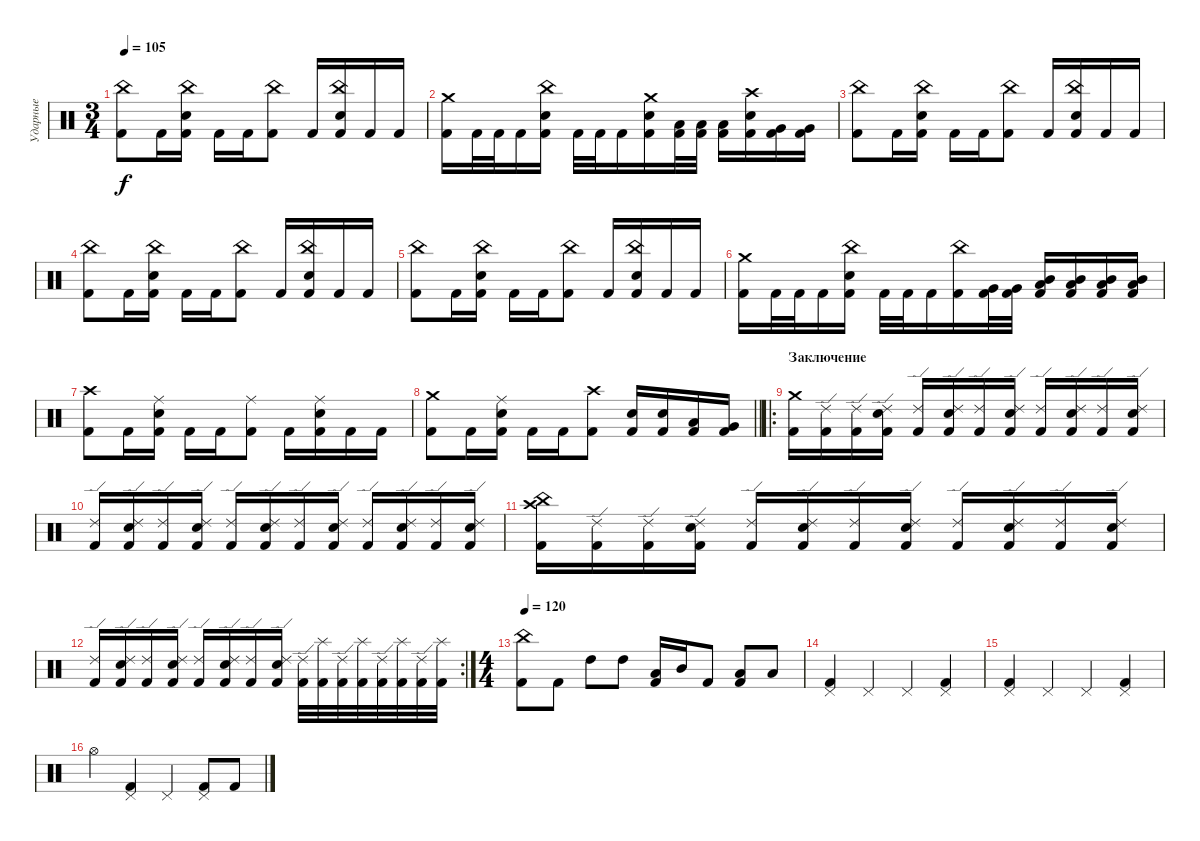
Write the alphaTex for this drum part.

\track ("Ударные" "Ударные") {instrument percussion}
\staff {score}
\articulation defaults
\ts (3 4)
\tempo 105
\clef neutral
\ks c
("Kick (hit) 2" "China (hit)").8{dy f} "Kick (hit) 2".16 ("Kick (hit) 2" "Snare (hit) 2" "China (hit)").16 "Kick (hit) 2".16 "Kick (hit) 2".16 ("Kick (hit) 2" "China (hit)").8 "Kick (hit) 2".16 ("Kick (hit) 2" "Snare (hit) 2" "China (hit)").16 "Kick (hit) 2".16 "Kick (hit) 2".16 |
("Kick (hit) 2" "Crash medium (hit)").16 "Kick (hit) 2".32 "Kick (hit) 2".32 "Kick (hit) 2".16 ("Kick (hit) 2" "Snare (hit) 2" "China (hit)").16 "Kick (hit) 2".32 "Kick (hit) 2".32 "Kick (hit) 2".16 ("Kick (hit) 2" "Snare (hit) 2" "Crash medium (hit)").16 ("Kick (hit) 2" "Low Tom (hit)").32 ("Kick (hit) 2" "Low Tom (hit)").32 ("Kick (hit) 2" "Low Tom (hit)").16 ("Kick (hit) 2" "Snare (hit) 2" "Crash high (hit)").16 ("Kick (hit) 2" "Very Low Tom (hit)").16 ("Kick (hit) 2" "Very Low Tom (hit)").16 |
("Kick (hit) 2" "China (hit)").8 "Kick (hit) 2".16 ("Kick (hit) 2" "Snare (hit) 2" "China (hit)").16 "Kick (hit) 2".16 "Kick (hit) 2".16 ("Kick (hit) 2" "China (hit)").8 "Kick (hit) 2".16 ("Kick (hit) 2" "Snare (hit) 2" "China (hit)").16 "Kick (hit) 2".16 "Kick (hit) 2".16 |
("Kick (hit) 2" "China (hit)").8 "Kick (hit) 2".16 ("Kick (hit) 2" "Snare (hit) 2" "China (hit)").16 "Kick (hit) 2".16 "Kick (hit) 2".16 ("Kick (hit) 2" "China (hit)").8 "Kick (hit) 2".16 ("Kick (hit) 2" "Snare (hit) 2" "China (hit)").16 "Kick (hit) 2".16 "Kick (hit) 2".16 |
("Kick (hit) 2" "China (hit)").8 "Kick (hit) 2".16 ("Kick (hit) 2" "Snare (hit) 2" "China (hit)").16 "Kick (hit) 2".16 "Kick (hit) 2".16 ("Kick (hit) 2" "China (hit)").8 "Kick (hit) 2".16 ("Kick (hit) 2" "Snare (hit) 2" "China (hit)").16 "Kick (hit) 2".16 "Kick (hit) 2".16 |
("Kick (hit) 2" "Crash medium (hit)").16 "Kick (hit) 2".32 "Kick (hit) 2".32 "Kick (hit) 2".16 ("Kick (hit) 2" "Snare (hit) 2" "China (hit)").16 "Kick (hit) 2".32 "Kick (hit) 2".32 "Kick (hit) 2".16 ("Kick (hit) 2" "China (hit)").16 ("Kick (hit) 2" "Very Low Tom (hit)").32 ("Kick (hit) 2" "Very Low Tom (hit)").32 ("Kick (hit) 2" "Low Tom (hit)" "Mid Tom (hit)").16 ("Kick (hit) 2" "Low Tom (hit)" "Mid Tom (hit)").16 ("Kick (hit) 2" "Low Tom (hit)" "Mid Tom (hit)").16 ("Kick (hit) 2" "Low Tom (hit)" "Mid Tom (hit)").16 |
("Kick (hit) 2" "Crash high (hit)").8 "Kick (hit) 2".16 ("Kick (hit) 2" "Snare (hit) 2" "Ride (middle)").16 "Kick (hit) 2".16 "Kick (hit) 2".16 ("Kick (hit) 2" "Ride (middle)").8 "Kick (hit) 2".16 ("Kick (hit) 2" "Snare (hit) 2" "Ride (middle)").16 "Kick (hit) 2".16 "Kick (hit) 2".16 |
\barLineRight lightlight
("Kick (hit) 2" "Crash medium (hit)").8 "Kick (hit) 2".16 ("Kick (hit) 2" "Snare (hit) 2" "Ride (middle)").16 "Kick (hit) 2".16 "Kick (hit) 2".16 ("Kick (hit) 2" "Crash high (hit)").8 ("Kick (hit) 2" "Snare (hit) 2").16 ("Kick (hit) 2" "Snare (hit) 2").16 ("Kick (hit) 2" "Low Tom (hit)").16 ("Kick (hit) 2" "Very Low Tom (hit)").16 |
\ro
\section ("" "Заключение")
("Kick (hit) 2" "Crash medium (hit)").16 ("Kick (hit) 2" "Ride (edge) 2").16 ("Kick (hit) 2" "Ride (edge) 2").16 ("Kick (hit) 2" "Snare (hit) 2" "Ride (edge) 2").16 ("Kick (hit) 2" "Ride (edge) 2").16 ("Kick (hit) 2" "Snare (hit) 2" "Ride (edge) 2").16 ("Kick (hit) 2" "Ride (edge) 2").16 ("Kick (hit) 2" "Snare (hit) 2" "Ride (edge) 2").16 ("Kick (hit) 2" "Ride (edge) 2").16 ("Kick (hit) 2" "Snare (hit) 2" "Ride (edge) 2").16 ("Kick (hit) 2" "Ride (edge) 2").16 ("Kick (hit) 2" "Snare (hit) 2" "Ride (edge) 2").16 |
("Kick (hit) 2" "Ride (edge) 2").16 ("Kick (hit) 2" "Snare (hit) 2" "Ride (edge) 2").16 ("Kick (hit) 2" "Ride (edge) 2").16 ("Kick (hit) 2" "Snare (hit) 2" "Ride (edge) 2").16 ("Kick (hit) 2" "Ride (edge) 2").16 ("Kick (hit) 2" "Snare (hit) 2" "Ride (edge) 2").16 ("Kick (hit) 2" "Ride (edge) 2").16 ("Kick (hit) 2" "Snare (hit) 2" "Ride (edge) 2").16 ("Kick (hit) 2" "Ride (edge) 2").16 ("Kick (hit) 2" "Snare (hit) 2" "Ride (edge) 2").16 ("Kick (hit) 2" "Ride (edge) 2").16 ("Kick (hit) 2" "Snare (hit) 2" "Ride (edge) 2").16 |
("Kick (hit) 2" "China (hit)" "Crash high (hit)").16 ("Kick (hit) 2" "Ride (edge) 2").16 ("Kick (hit) 2" "Ride (edge) 2").16 ("Kick (hit) 2" "Snare (hit) 2" "Ride (edge) 2").16 ("Kick (hit) 2" "Ride (edge) 2").16 ("Kick (hit) 2" "Snare (hit) 2" "Ride (edge) 2").16 ("Kick (hit) 2" "Ride (edge) 2").16 ("Kick (hit) 2" "Snare (hit) 2" "Ride (edge) 2").16 ("Kick (hit) 2" "Ride (edge) 2").16 ("Kick (hit) 2" "Snare (hit) 2" "Ride (edge) 2").16 ("Kick (hit) 2" "Ride (edge) 2").16 ("Kick (hit) 2" "Snare (hit) 2" "Ride (edge) 2").16 |
\rc 2
("Kick (hit) 2" "Ride (edge) 2").16 ("Kick (hit) 2" "Snare (hit) 2" "Ride (edge) 2").16 ("Kick (hit) 2" "Ride (edge) 2").16 ("Kick (hit) 2" "Snare (hit) 2" "Ride (edge) 2").16 ("Kick (hit) 2" "Ride (edge) 2").16 ("Kick (hit) 2" "Snare (hit) 2" "Ride (edge) 2").16 ("Kick (hit) 2" "Ride (edge) 2").16 ("Kick (hit) 2" "Snare (hit) 2" "Ride (edge) 2").16 ("Kick (hit) 2" "Ride (edge) 2").32 ("Kick (hit) 2" "Splash (hit)").32 ("Kick (hit) 2" "Ride (edge) 2").32 ("Kick (hit) 2" "Splash (hit)").32 ("Kick (hit) 2" "Ride (edge) 2").32 ("Kick (hit) 2" "Splash (hit)").32 ("Kick (hit) 2" "Ride (edge) 2").32 ("Kick (hit) 2" "Splash (hit)").32 |
\ts (4 4)
\tempo 120
("China (hit)" "Kick (hit) 2").8 "Kick (hit) 2".8 "High Tom (hit)".8 "High Tom (hit)".8 ("Low Tom (hit)" "Kick (hit) 2").16 "Mid Tom (hit)".16 "Kick (hit) 2".8 ("Low Tom (hit)" "Kick (hit) 2").8 "Low Floor Tom (hit)".8 |
("Pedal Hi-Hat (hit)" "Kick (hit) 2").4 "Pedal Hi-Hat (hit)".4 "Pedal Hi-Hat (hit)".4 ("Pedal Hi-Hat (hit)" "Kick (hit) 2").4 |
("Pedal Hi-Hat (hit)" "Kick (hit) 2").4 "Pedal Hi-Hat (hit)".4 "Pedal Hi-Hat (hit)".4 ("Pedal Hi-Hat (hit)" "Kick (hit) 2").4 |
"Hi-Hat (open)".4 ("Pedal Hi-Hat (hit)" "Kick (hit) 2").4 "Pedal Hi-Hat (hit)".4 ("Pedal Hi-Hat (hit)" "Kick (hit) 2").8 "Kick (hit) 2".8
